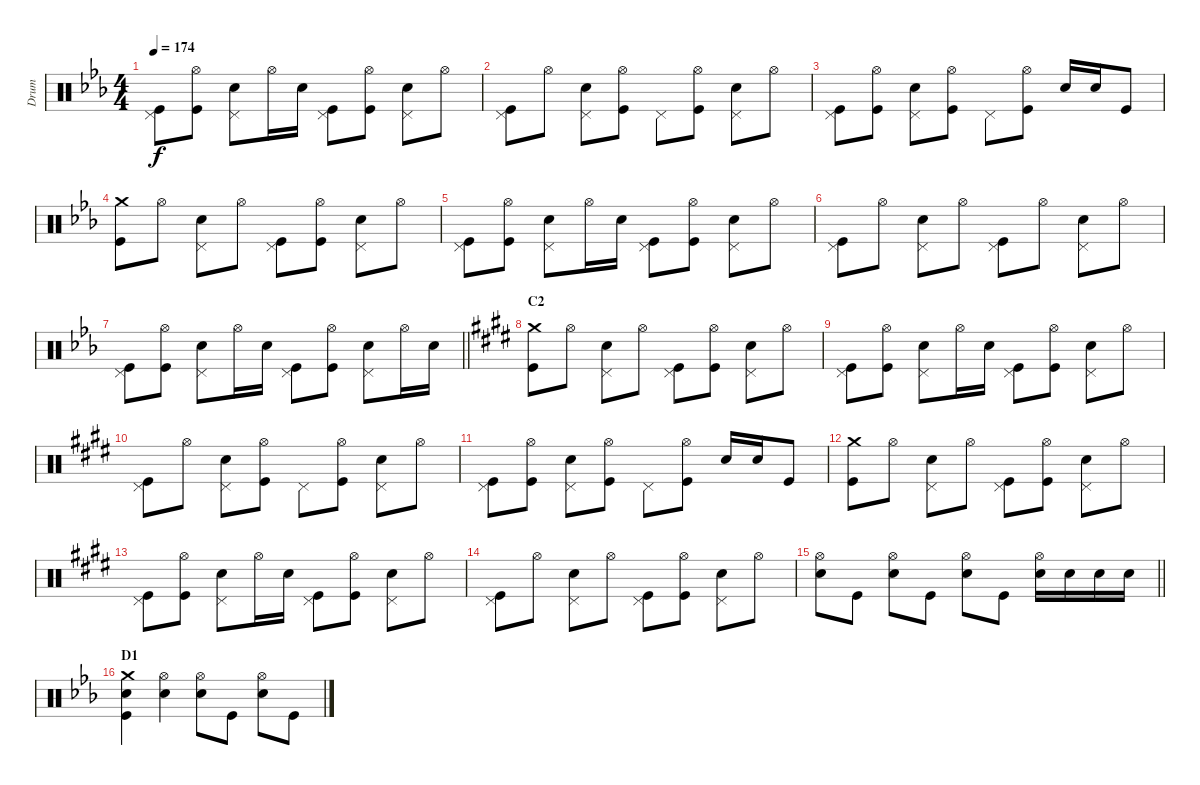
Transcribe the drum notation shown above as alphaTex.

\track ("Drum" "Drum") {instrument percussion}
\staff {score}
\articulation defaults
\ts (4 4)
\tempo 174
\clef neutral
\ks eb
("Pedal Hi-Hat (hit)" "Kick (hit)").8{dy f} ("Hi-Hat (open)" "Kick (hit)").8 ("Pedal Hi-Hat (hit)" "Snare (hit) 2").8 "Hi-Hat (open)".16 "Snare (hit) 2".16 ("Pedal Hi-Hat (hit)" "Kick (hit)").8 ("Hi-Hat (open)" "Kick (hit)").8 ("Pedal Hi-Hat (hit)" "Snare (hit) 2").8 "Hi-Hat (open)".8 |
("Pedal Hi-Hat (hit)" "Kick (hit)").8 "Hi-Hat (open)".8 ("Pedal Hi-Hat (hit)" "Snare (hit) 2").8 ("Hi-Hat (open)" "Kick (hit)").8 "Pedal Hi-Hat (hit)".8 ("Hi-Hat (open)" "Kick (hit)").8 ("Pedal Hi-Hat (hit)" "Snare (hit) 2").8 "Hi-Hat (open)".8 |
("Pedal Hi-Hat (hit)" "Kick (hit)").8 ("Hi-Hat (open)" "Kick (hit)").8 ("Pedal Hi-Hat (hit)" "Snare (hit) 2").8 ("Hi-Hat (open)" "Kick (hit)").8 "Pedal Hi-Hat (hit)".8 ("Hi-Hat (open)" "Kick (hit)").8 "Snare (hit) 2".16 "Snare (hit) 2".16 "Kick (hit)".8 |
("Crash medium (hit)" "Kick (hit)").8 "Hi-Hat (open)".8 ("Pedal Hi-Hat (hit)" "Snare (hit) 2").8 "Hi-Hat (open)".8 ("Pedal Hi-Hat (hit)" "Kick (hit)").8 ("Hi-Hat (open)" "Kick (hit)").8 ("Pedal Hi-Hat (hit)" "Snare (hit) 2").8 "Hi-Hat (open)".8 |
("Pedal Hi-Hat (hit)" "Kick (hit)").8 ("Hi-Hat (open)" "Kick (hit)").8 ("Pedal Hi-Hat (hit)" "Snare (hit) 2").8 "Hi-Hat (open)".16 "Snare (hit) 2".16 ("Pedal Hi-Hat (hit)" "Kick (hit)").8 ("Hi-Hat (open)" "Kick (hit)").8 ("Pedal Hi-Hat (hit)" "Snare (hit) 2").8 "Hi-Hat (open)".8 |
("Pedal Hi-Hat (hit)" "Kick (hit)").8 "Hi-Hat (open)".8 ("Pedal Hi-Hat (hit)" "Snare (hit) 2").8 "Hi-Hat (open)".8 ("Pedal Hi-Hat (hit)" "Kick (hit)").8 "Hi-Hat (open)".8 ("Pedal Hi-Hat (hit)" "Snare (hit) 2").8 "Hi-Hat (open)".8 |
\barLineRight lightlight
("Pedal Hi-Hat (hit)" "Kick (hit)").8 ("Hi-Hat (open)" "Kick (hit)").8 ("Pedal Hi-Hat (hit)" "Snare (hit) 2").8 "Hi-Hat (open)".16 "Snare (hit) 2".16 ("Pedal Hi-Hat (hit)" "Kick (hit)").8 ("Hi-Hat (open)" "Kick (hit)").8 ("Pedal Hi-Hat (hit)" "Snare (hit) 2").8 "Hi-Hat (open)".16 "Snare (hit) 2".16 |
\section ("" "C2")
\ks e
("Crash medium (hit)" "Kick (hit)").8 "Hi-Hat (open)".8 ("Pedal Hi-Hat (hit)" "Snare (hit) 2").8 "Hi-Hat (open)".8 ("Pedal Hi-Hat (hit)" "Kick (hit)").8 ("Hi-Hat (open)" "Kick (hit)").8 ("Pedal Hi-Hat (hit)" "Snare (hit) 2").8 "Hi-Hat (open)".8 |
("Pedal Hi-Hat (hit)" "Kick (hit)").8 ("Hi-Hat (open)" "Kick (hit)").8 ("Pedal Hi-Hat (hit)" "Snare (hit) 2").8 "Hi-Hat (open)".16 "Snare (hit) 2".16 ("Pedal Hi-Hat (hit)" "Kick (hit)").8 ("Hi-Hat (open)" "Kick (hit)").8 ("Pedal Hi-Hat (hit)" "Snare (hit) 2").8 "Hi-Hat (open)".8 |
("Pedal Hi-Hat (hit)" "Kick (hit)").8 "Hi-Hat (open)".8 ("Pedal Hi-Hat (hit)" "Snare (hit) 2").8 ("Hi-Hat (open)" "Kick (hit)").8 "Pedal Hi-Hat (hit)".8 ("Hi-Hat (open)" "Kick (hit)").8 ("Pedal Hi-Hat (hit)" "Snare (hit) 2").8 "Hi-Hat (open)".8 |
("Pedal Hi-Hat (hit)" "Kick (hit)").8 ("Hi-Hat (open)" "Kick (hit)").8 ("Pedal Hi-Hat (hit)" "Snare (hit) 2").8 ("Hi-Hat (open)" "Kick (hit)").8 "Pedal Hi-Hat (hit)".8 ("Hi-Hat (open)" "Kick (hit)").8 "Snare (hit) 2".16 "Snare (hit) 2".16 "Kick (hit)".8 |
("Crash medium (hit)" "Kick (hit)").8 "Hi-Hat (open)".8 ("Pedal Hi-Hat (hit)" "Snare (hit) 2").8 "Hi-Hat (open)".8 ("Pedal Hi-Hat (hit)" "Kick (hit)").8 ("Hi-Hat (open)" "Kick (hit)").8 ("Pedal Hi-Hat (hit)" "Snare (hit) 2").8 "Hi-Hat (open)".8 |
("Pedal Hi-Hat (hit)" "Kick (hit)").8 ("Hi-Hat (open)" "Kick (hit)").8 ("Pedal Hi-Hat (hit)" "Snare (hit) 2").8 "Hi-Hat (open)".16 "Snare (hit) 2".16 ("Pedal Hi-Hat (hit)" "Kick (hit)").8 ("Hi-Hat (open)" "Kick (hit)").8 ("Pedal Hi-Hat (hit)" "Snare (hit) 2").8 "Hi-Hat (open)".8 |
("Pedal Hi-Hat (hit)" "Kick (hit)").8 "Hi-Hat (open)".8 ("Pedal Hi-Hat (hit)" "Snare (hit) 2").8 "Hi-Hat (open)".8 ("Pedal Hi-Hat (hit)" "Kick (hit)").8 ("Hi-Hat (open)" "Kick (hit)").8 ("Pedal Hi-Hat (hit)" "Snare (hit) 2").8 "Hi-Hat (open)".8 |
\barLineRight lightlight
("Hi-Hat (open)" "Snare (hit) 2").8 "Kick (hit)".8 ("Hi-Hat (open)" "Snare (hit) 2").8 "Kick (hit)".8 ("Hi-Hat (open)" "Snare (hit) 2").8 "Kick (hit)".8 ("Hi-Hat (open)" "Snare (hit) 2").16 "Snare (hit) 2".16 "Snare (hit) 2".16 "Snare (hit) 2".16 |
\section ("" "D1")
\ks eb
("Crash medium (hit)" "Snare (hit) 2" "Kick (hit)").4 ("Hi-Hat (open)" "Snare (hit) 2").4 ("Hi-Hat (open)" "Snare (hit) 2").8 "Kick (hit)".8 ("Hi-Hat (open)" "Snare (hit) 2").8 "Kick (hit)".8
